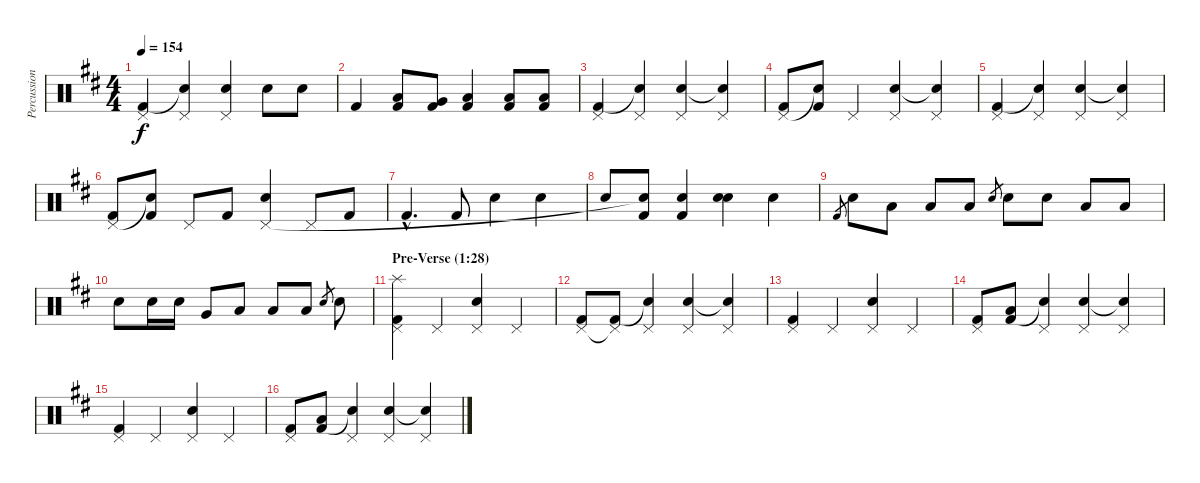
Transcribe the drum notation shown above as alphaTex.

\track ("Percussion" "Percussion") {instrument percussion}
\staff {score}
\articulation defaults
\ts (4 4)
\tempo 154
\clef neutral
\ks d
("Kick (hit) 2" "Pedal Hi-Hat (hit)").4{dy f} ("Snare (hit) 2"{t} "Pedal Hi-Hat (hit)").4 ("Electric Snare (hit)" "Pedal Hi-Hat (hit)").4 "Electric Snare (hit)".8 "Electric Snare (hit)".8 |
"Kick (hit) 2".4 ("Kick (hit) 2" "Low Tom (hit)").8 ("Kick (hit) 2" "Very Low Tom (hit)").8 ("Kick (hit) 2" "Low Floor Tom (hit)").4 ("Kick (hit) 2" "Low Floor Tom (hit)").8 ("Kick (hit) 2" "Low Floor Tom (hit)").8 |
("Kick (hit) 2" "Pedal Hi-Hat (hit)").4 ("Snare (hit)"{t} "Pedal Hi-Hat (hit)").4 ("Electric Snare (hit)" "Pedal Hi-Hat (hit)").4 ("Snare (hit)"{t} "Pedal Hi-Hat (hit)").4 |
("Kick (hit) 2" "Pedal Hi-Hat (hit)").8 ("Kick (hit) 2" "Snare (hit)"{t}).8 "Pedal Hi-Hat (hit)".4 ("Electric Snare (hit)" "Pedal Hi-Hat (hit)").4 ("Snare (hit)"{t} "Pedal Hi-Hat (hit)").4 |
("Kick (hit) 2" "Pedal Hi-Hat (hit)").4 ("Snare (hit)"{t} "Pedal Hi-Hat (hit)").4 ("Electric Snare (hit)" "Pedal Hi-Hat (hit)").4 ("Snare (hit)"{t} "Pedal Hi-Hat (hit)").4 |
("Kick (hit) 2" "Pedal Hi-Hat (hit)").8 ("Kick (hit) 2" "Snare (hit)"{t}).8 "Pedal Hi-Hat (hit)".8 "Kick (hit) 2".8 ("Electric Snare (hit)" "Pedal Hi-Hat (hit)").4 "Pedal Hi-Hat (hit)".8 "Kick (hit) 2".8 |
"Kick (hit) 2"{hac}.4{d} "Kick (hit) 2".8 "Electric Snare (hit)".4 "Metronome (bell)".4 |
"Metronome (bell)".8 ("Kick (hit) 2" "Snare (hit)"{t}).8 ("Kick (hit) 2" "Metronome (bell)").4 ("Electric Snare (hit)" "Metronome (bell)").4 "Metronome (bell)".4 |
"Kick (hit) 2".8{gr} "Electric Snare (hit)".8 "Low Floor Tom (hit)".8 "Low Floor Tom (hit)".8 "Low Floor Tom (hit)".8 "Electric Snare (hit)".8{gr} "Electric Snare (hit)".8 "Electric Snare (hit)".8 "Low Floor Tom (hit)".8 "Low Floor Tom (hit)".8 |
"Snare (hit) 2".8 "Snare (hit) 2".16 "Snare (hit) 2".16 "Very Low Tom (hit)".8 "Low Floor Tom (hit)".8 "Low Floor Tom (hit)".8 "Low Floor Tom (hit)".8 "Electric Snare (hit)".8{gr} "Electric Snare (hit)".8 |
\section ("" "Pre-Verse (1:28)")
("Kick (hit) 2" "Pedal Hi-Hat (hit)" "Splash (hit)").4 "Pedal Hi-Hat (hit)".4 ("Electric Snare (hit)" "Pedal Hi-Hat (hit)").4 "Pedal Hi-Hat (hit)".4 |
("Kick (hit) 2" "Pedal Hi-Hat (hit)").8 ("Kick (hit) 2" "Pedal Hi-Hat (hit)"{t}).8 ("Snare (hit)"{t} "Pedal Hi-Hat (hit)").4 ("Electric Snare (hit)" "Pedal Hi-Hat (hit)").4 ("Snare (hit) 2"{t} "Pedal Hi-Hat (hit)").4 |
("Kick (hit) 2" "Pedal Hi-Hat (hit)").4 "Pedal Hi-Hat (hit)".4 ("Electric Snare (hit)" "Pedal Hi-Hat (hit)").4 "Pedal Hi-Hat (hit)".4 |
("Kick (hit) 2" "Pedal Hi-Hat (hit)").8 ("Kick (hit) 2" "Low Floor Tom (hit)").8 ("Snare (hit)"{t} "Pedal Hi-Hat (hit)").4 ("Electric Snare (hit)" "Pedal Hi-Hat (hit)").4 ("Snare (hit) 2"{t} "Pedal Hi-Hat (hit)").4 |
("Kick (hit) 2" "Pedal Hi-Hat (hit)").4 "Pedal Hi-Hat (hit)".4 ("Electric Snare (hit)" "Pedal Hi-Hat (hit)").4 "Pedal Hi-Hat (hit)".4 |
("Kick (hit) 2" "Pedal Hi-Hat (hit)").8 ("Kick (hit) 2" "Low Floor Tom (hit)").8 ("Snare (hit)"{t} "Pedal Hi-Hat (hit)").4 ("Electric Snare (hit)" "Pedal Hi-Hat (hit)").4 ("Snare (hit) 2"{t} "Pedal Hi-Hat (hit)").4
